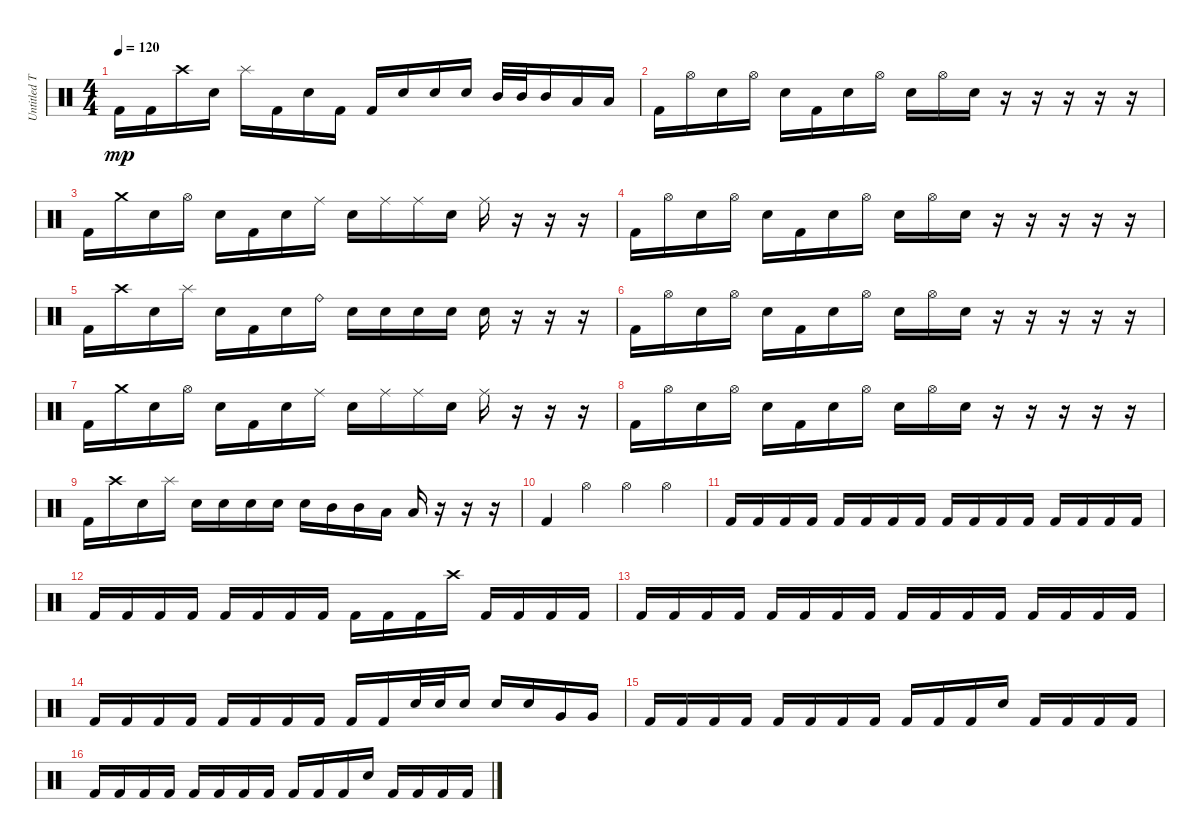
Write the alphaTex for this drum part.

\track ("Untitled Track" "Untitled T") {instrument percussion}
\staff {score}
\articulation defaults
\ts (4 4)
\tempo 120
\clef neutral
\ks c "Kick (hit) 2".16{dy mp} "Kick (hit) 2".16 "Crash high (hit)".16 "Snare (hit) 2".16 "Splash (hit)".16 "Kick (hit) 2".16 "Snare (hit) 2".16 "Kick (hit) 2".16 "Kick (hit) 2".16 "Snare (hit) 2".16 "Snare (hit) 2".16 "Snare (hit) 2".16 "Mid Tom (hit)".32 "Mid Tom (hit)".32 "Mid Tom (hit)".16 "Low Tom (hit)".16 "Low Tom (hit)".16
|
"Kick (hit) 2".16 "Hi-Hat (open)".16 "Snare (hit) 2".16 "Hi-Hat (open)".16 "Snare (hit) 2".16 "Kick (hit) 2".16 "Snare (hit) 2".16 "Hi-Hat (open)".16 "Snare (hit) 2".16 "Hi-Hat (open)".16 "Snare (hit) 2".16 r.16 r.16 r.16 r.16 r.16 |
"Kick (hit) 2".16 "Crash medium (hit)".16 "Snare (hit) 2".16 "Hi-Hat (open)".16 "Snare (hit) 2".16 "Kick (hit) 2".16 "Snare (hit) 2".16 "Ride (middle)".16 "Snare (hit) 2".16 "Ride (middle)".16 "Ride (middle)".16 "Snare (hit) 2".16 "Ride (middle)".16 r.16 r.16 r.16 |
"Kick (hit) 2".16 "Hi-Hat (open)".16 "Snare (hit) 2".16 "Hi-Hat (open)".16 "Snare (hit) 2".16 "Kick (hit) 2".16 "Snare (hit) 2".16 "Hi-Hat (open)".16 "Snare (hit) 2".16 "Hi-Hat (open)".16 "Snare (hit) 2".16 r.16 r.16 r.16 r.16 r.16 |
"Kick (hit) 2".16 "Crash high (hit)".16 "Snare (hit) 2".16 "Splash (hit)".16 "Snare (hit) 2".16 "Kick (hit) 2".16 "Snare (hit) 2".16 "Ride (bell)".16 "Snare (hit) 2".16 "Snare (hit) 2".16 "Snare (hit) 2".16 "Snare (hit) 2".16 "Snare (hit) 2".16 r.16 r.16 r.16 |
"Kick (hit) 2".16 "Hi-Hat (open)".16 "Snare (hit) 2".16 "Hi-Hat (open)".16 "Snare (hit) 2".16 "Kick (hit) 2".16 "Snare (hit) 2".16 "Hi-Hat (open)".16 "Snare (hit) 2".16 "Hi-Hat (open)".16 "Snare (hit) 2".16 r.16 r.16 r.16 r.16 r.16 |
"Kick (hit) 2".16 "Crash medium (hit)".16 "Snare (hit) 2".16 "Hi-Hat (open)".16 "Snare (hit) 2".16 "Kick (hit) 2".16 "Snare (hit) 2".16 "Ride (middle)".16 "Snare (hit) 2".16 "Ride (middle)".16 "Ride (middle)".16 "Snare (hit) 2".16 "Ride (middle)".16 r.16 r.16 r.16 |
"Kick (hit) 2".16 "Hi-Hat (open)".16 "Snare (hit) 2".16 "Hi-Hat (open)".16 "Snare (hit) 2".16 "Kick (hit) 2".16 "Snare (hit) 2".16 "Hi-Hat (open)".16 "Snare (hit) 2".16 "Hi-Hat (open)".16 "Snare (hit) 2".16 r.16 r.16 r.16 r.16 r.16 |
"Kick (hit) 2".16 "Crash high (hit)".16 "Snare (hit) 2".16 "Splash (hit)".16 "Snare (hit) 2".16 "Snare (hit) 2".16 "Snare (hit) 2".16 "Snare (hit) 2".16 "Snare (hit) 2".16 "Mid Tom (hit)".16 "Mid Tom (hit)".16 "Low Tom (hit)".16 "Low Tom (hit)".16 r.16 r.16 r.16 |
"Kick (hit) 2".4 "Hi-Hat (open)".4 "Hi-Hat (open)".4 "Hi-Hat (open)".4 |
"Kick (hit) 2".16 "Kick (hit) 2".16 "Kick (hit) 2".16 "Kick (hit) 2".16 "Kick (hit) 2".16 "Kick (hit) 2".16 "Kick (hit) 2".16 "Kick (hit) 2".16 "Kick (hit) 2".16 "Kick (hit) 2".16 "Kick (hit) 2".16 "Kick (hit) 2".16 "Kick (hit) 2".16 "Kick (hit) 2".16 "Kick (hit) 2".16 "Kick (hit) 2".16 |
"Kick (hit) 2".16 "Kick (hit) 2".16 "Kick (hit) 2".16 "Kick (hit) 2".16 "Kick (hit) 2".16 "Kick (hit) 2".16 "Kick (hit) 2".16 "Kick (hit) 2".16 "Kick (hit) 2".16 "Kick (hit) 2".16 "Kick (hit) 2".16 "Crash high (hit)".16 "Kick (hit) 2".16 "Kick (hit) 2".16 "Kick (hit) 2".16 "Kick (hit) 2".16 |
"Kick (hit) 2".16 "Kick (hit) 2".16 "Kick (hit) 2".16 "Kick (hit) 2".16 "Kick (hit) 2".16 "Kick (hit) 2".16 "Kick (hit) 2".16 "Kick (hit) 2".16 "Kick (hit) 2".16 "Kick (hit) 2".16 "Kick (hit) 2".16 "Kick (hit) 2".16 "Kick (hit) 2".16 "Kick (hit) 2".16 "Kick (hit) 2".16 "Kick (hit) 2".16 |
"Kick (hit) 2".16 "Kick (hit) 2".16 "Kick (hit) 2".16 "Kick (hit) 2".16 "Kick (hit) 2".16 "Kick (hit) 2".16 "Kick (hit) 2".16 "Kick (hit) 2".16 "Kick (hit) 2".16 "Kick (hit) 2".16 "Snare (hit) 2".32 "Snare (hit) 2".32 "Snare (hit) 2".16 "Snare (hit) 2".16 "Snare (hit) 2".16 "Very Low Tom (hit)".16 "Very Low Tom (hit)".16 |
"Kick (hit) 2".16 "Kick (hit) 2".16 "Kick (hit) 2".16 "Kick (hit) 2".16 "Kick (hit) 2".16 "Kick (hit) 2".16 "Kick (hit) 2".16 "Kick (hit) 2".16 "Kick (hit) 2".16 "Kick (hit) 2".16 "Kick (hit) 2".16 "Snare (hit) 2".16 "Kick (hit) 2".16 "Kick (hit) 2".16 "Kick (hit) 2".16 "Kick (hit) 2".16 |
"Kick (hit) 2".16 "Kick (hit) 2".16 "Kick (hit) 2".16 "Kick (hit) 2".16 "Kick (hit) 2".16 "Kick (hit) 2".16 "Kick (hit) 2".16 "Kick (hit) 2".16 "Kick (hit) 2".16 "Kick (hit) 2".16 "Kick (hit) 2".16 "Snare (hit) 2".16 "Kick (hit) 2".16 "Kick (hit) 2".16 "Kick (hit) 2".16 "Kick (hit) 2".16
